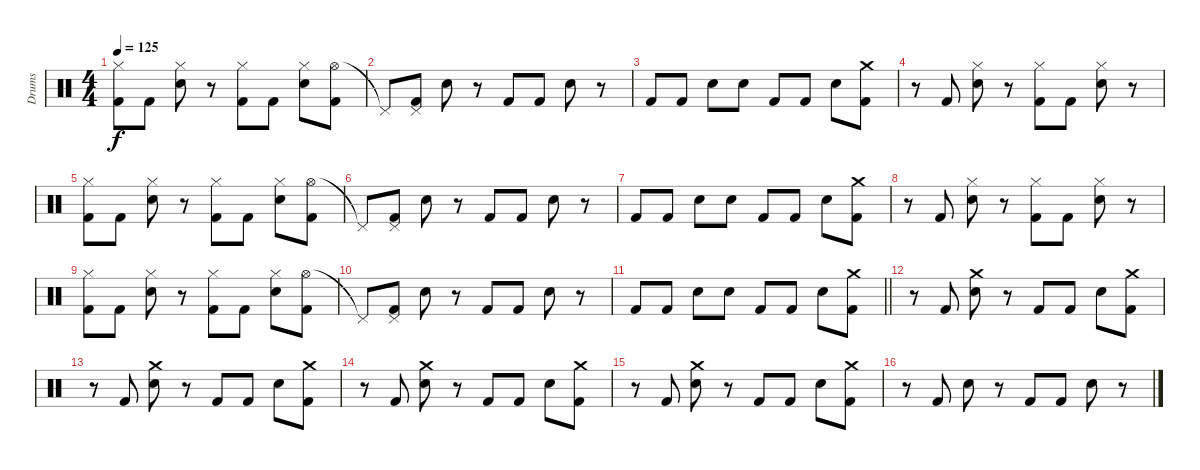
\track ("Drums" "Drums") {instrument percussion}
\staff {score}
\articulation defaults
\ts (4 4)
\tempo 125
\clef neutral
\ks c
("Hi-Hat (closed)" "Kick (hit) 2").8{dy f} "Kick (hit) 2".8 ("Hi-Hat (closed)" "Snare (hit) 2").8 r.8 ("Hi-Hat (closed)" "Kick (hit) 2").8 "Kick (hit) 2".8 ("Hi-Hat (closed)" "Snare (hit) 2").8 ("Hi-Hat (open)" "Kick (hit) 2").8 |
"Pedal Hi-Hat (hit)"{t}.8 ("Pedal Hi-Hat (hit)" "Kick (hit) 2").8 "Snare (hit) 2".8 r.8 "Kick (hit) 2".8 "Kick (hit) 2".8 "Snare (hit) 2".8 r.8 |
"Kick (hit) 2".8 "Kick (hit) 2".8 "Snare (hit) 2".8 "Snare (hit) 2".8 "Kick (hit) 2".8 "Kick (hit) 2".8 "Snare (hit) 2".8 ("Crash medium (hit)" "Kick (hit) 2").8 |
r.8 "Kick (hit) 2".8 ("Hi-Hat (closed)" "Snare (hit) 2").8 r.8 ("Hi-Hat (closed)" "Kick (hit) 2").8 "Kick (hit) 2".8 ("Hi-Hat (closed)" "Snare (hit) 2").8 r.8 |
("Hi-Hat (closed)" "Kick (hit) 2").8 "Kick (hit) 2".8 ("Hi-Hat (closed)" "Snare (hit) 2").8 r.8 ("Hi-Hat (closed)" "Kick (hit) 2").8 "Kick (hit) 2".8 ("Hi-Hat (closed)" "Snare (hit) 2").8 ("Hi-Hat (open)" "Kick (hit) 2").8 |
"Pedal Hi-Hat (hit)"{t}.8 ("Pedal Hi-Hat (hit)" "Kick (hit) 2").8 "Snare (hit) 2".8 r.8 "Kick (hit) 2".8 "Kick (hit) 2".8 "Snare (hit) 2".8 r.8 |
"Kick (hit) 2".8 "Kick (hit) 2".8 "Snare (hit) 2".8 "Snare (hit) 2".8 "Kick (hit) 2".8 "Kick (hit) 2".8 "Snare (hit) 2".8 ("Crash medium (hit)" "Kick (hit) 2").8 |
r.8 "Kick (hit) 2".8 ("Hi-Hat (closed)" "Snare (hit) 2").8 r.8 ("Hi-Hat (closed)" "Kick (hit) 2").8 "Kick (hit) 2".8 ("Hi-Hat (closed)" "Snare (hit) 2").8 r.8 |
("Hi-Hat (closed)" "Kick (hit) 2").8 "Kick (hit) 2".8 ("Hi-Hat (closed)" "Snare (hit) 2").8 r.8 ("Hi-Hat (closed)" "Kick (hit) 2").8 "Kick (hit) 2".8 ("Hi-Hat (closed)" "Snare (hit) 2").8 ("Hi-Hat (open)" "Kick (hit) 2").8 |
"Pedal Hi-Hat (hit)"{t}.8 ("Pedal Hi-Hat (hit)" "Kick (hit) 2").8 "Snare (hit) 2".8 r.8 "Kick (hit) 2".8 "Kick (hit) 2".8 "Snare (hit) 2".8 r.8 |
\barLineRight lightlight "Kick (hit) 2".8 "Kick (hit) 2".8 "Snare (hit) 2".8 "Snare (hit) 2".8 "Kick (hit) 2".8 "Kick (hit) 2".8 "Snare (hit) 2".8
("Crash medium (hit)" "Kick (hit) 2").8 |
r.8 "Kick (hit) 2".8 ("Crash medium (hit)" "Snare (hit) 2").8 r.8 "Kick (hit) 2".8 "Kick (hit) 2".8 "Snare (hit) 2".8 ("Crash medium (hit)" "Kick (hit) 2").8 |
r.8 "Kick (hit) 2".8 ("Crash medium (hit)" "Snare (hit) 2").8 r.8 "Kick (hit) 2".8 "Kick (hit) 2".8 "Snare (hit) 2".8 ("Crash medium (hit)" "Kick (hit) 2").8 |
r.8 "Kick (hit) 2".8 ("Crash medium (hit)" "Snare (hit) 2").8 r.8 "Kick (hit) 2".8 "Kick (hit) 2".8 "Snare (hit) 2".8 ("Crash medium (hit)" "Kick (hit) 2").8 |
r.8 "Kick (hit) 2".8 ("Crash medium (hit)" "Snare (hit) 2").8 r.8 "Kick (hit) 2".8 "Kick (hit) 2".8 "Snare (hit) 2".8 ("Crash medium (hit)" "Kick (hit) 2").8 |
r.8 "Kick (hit) 2".8 "Snare (hit) 2".8 r.8 "Kick (hit) 2".8 "Kick (hit) 2".8 "Snare (hit) 2".8 r.8
